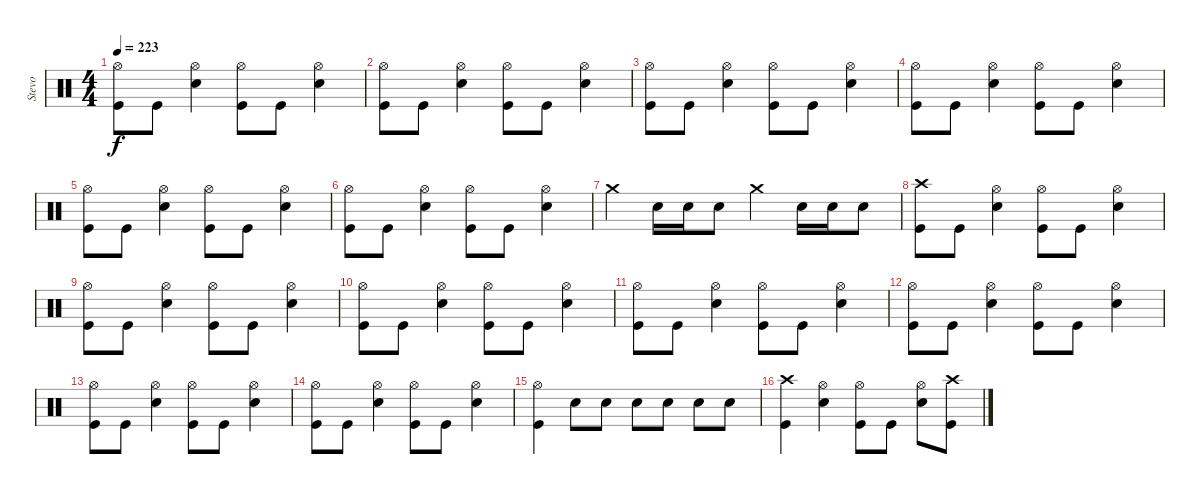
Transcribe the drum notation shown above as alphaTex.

\track ("Stevo" "Stevo") {instrument percussion}
\staff {score}
\articulation defaults
\ts (4 4)
\tempo 223
\clef neutral
\ks c
("Kick (hit)" "Hi-Hat (open)").8{dy f} "Kick (hit)".8 ("Electric Snare (hit)" "Hi-Hat (open)").4 ("Kick (hit)" "Hi-Hat (open)").8 "Kick (hit)".8 ("Electric Snare (hit)" "Hi-Hat (open)").4 |
("Kick (hit)" "Hi-Hat (open)").8 "Kick (hit)".8 ("Electric Snare (hit)" "Hi-Hat (open)").4 ("Kick (hit)" "Hi-Hat (open)").8 "Kick (hit)".8 ("Electric Snare (hit)" "Hi-Hat (open)").4 |
("Kick (hit)" "Hi-Hat (open)").8 "Kick (hit)".8 ("Electric Snare (hit)" "Hi-Hat (open)").4 ("Kick (hit)" "Hi-Hat (open)").8 "Kick (hit)".8 ("Electric Snare (hit)" "Hi-Hat (open)").4 |
("Kick (hit)" "Hi-Hat (open)").8 "Kick (hit)".8 ("Electric Snare (hit)" "Hi-Hat (open)").4 ("Kick (hit)" "Hi-Hat (open)").8 "Kick (hit)".8 ("Electric Snare (hit)" "Hi-Hat (open)").4 |
("Kick (hit)" "Hi-Hat (open)").8 "Kick (hit)".8 ("Electric Snare (hit)" "Hi-Hat (open)").4 ("Kick (hit)" "Hi-Hat (open)").8 "Kick (hit)".8 ("Electric Snare (hit)" "Hi-Hat (open)").4 |
("Kick (hit)" "Hi-Hat (open)").8 "Kick (hit)".8 ("Electric Snare (hit)" "Hi-Hat (open)").4 ("Kick (hit)" "Hi-Hat (open)").8 "Kick (hit)".8 ("Electric Snare (hit)" "Hi-Hat (open)").4 |
"Crash medium (hit)".4 "Electric Snare (hit)".16 "Electric Snare (hit)".16 "Electric Snare (hit)".8 "Crash medium (hit)".4 "Electric Snare (hit)".16 "Electric Snare (hit)".16 "Electric Snare (hit)".8 |
("Kick (hit)" "Crash high (hit)").8 "Kick (hit)".8 ("Electric Snare (hit)" "Hi-Hat (open)").4 ("Kick (hit)" "Hi-Hat (open)").8 "Kick (hit)".8 ("Electric Snare (hit)" "Hi-Hat (open)").4 |
("Kick (hit)" "Hi-Hat (open)").8 "Kick (hit)".8 ("Electric Snare (hit)" "Hi-Hat (open)").4 ("Kick (hit)" "Hi-Hat (open)").8 "Kick (hit)".8 ("Electric Snare (hit)" "Hi-Hat (open)").4 |
("Kick (hit)" "Hi-Hat (open)").8 "Kick (hit)".8 ("Electric Snare (hit)" "Hi-Hat (open)").4 ("Kick (hit)" "Hi-Hat (open)").8 "Kick (hit)".8 ("Electric Snare (hit)" "Hi-Hat (open)").4 |
("Kick (hit)" "Hi-Hat (open)").8 "Kick (hit)".8 ("Electric Snare (hit)" "Hi-Hat (open)").4 ("Kick (hit)" "Hi-Hat (open)").8 "Kick (hit)".8 ("Electric Snare (hit)" "Hi-Hat (open)").4 |
("Kick (hit)" "Hi-Hat (open)").8 "Kick (hit)".8 ("Electric Snare (hit)" "Hi-Hat (open)").4 ("Kick (hit)" "Hi-Hat (open)").8 "Kick (hit)".8 ("Electric Snare (hit)" "Hi-Hat (open)").4 |
("Kick (hit)" "Hi-Hat (open)").8 "Kick (hit)".8 ("Electric Snare (hit)" "Hi-Hat (open)").4 ("Kick (hit)" "Hi-Hat (open)").8 "Kick (hit)".8 ("Electric Snare (hit)" "Hi-Hat (open)").4 |
("Kick (hit)" "Hi-Hat (open)").8 "Kick (hit)".8 ("Electric Snare (hit)" "Hi-Hat (open)").4 ("Kick (hit)" "Hi-Hat (open)").8 "Kick (hit)".8 ("Electric Snare (hit)" "Hi-Hat (open)").4 |
("Kick (hit)" "Hi-Hat (open)").4 "Electric Snare (hit)".8 "Electric Snare (hit)".8 "Electric Snare (hit)".8 "Electric Snare (hit)".8 "Electric Snare (hit)".8 "Electric Snare (hit)".8 |
("Crash high (hit)" "Kick (hit)").4 ("Hi-Hat (open)" "Electric Snare (hit)").4 ("Hi-Hat (open)" "Kick (hit)").8 "Kick (hit)".8 ("Hi-Hat (open)" "Electric Snare (hit)").8 ("Crash high (hit)" "Kick (hit)").8
